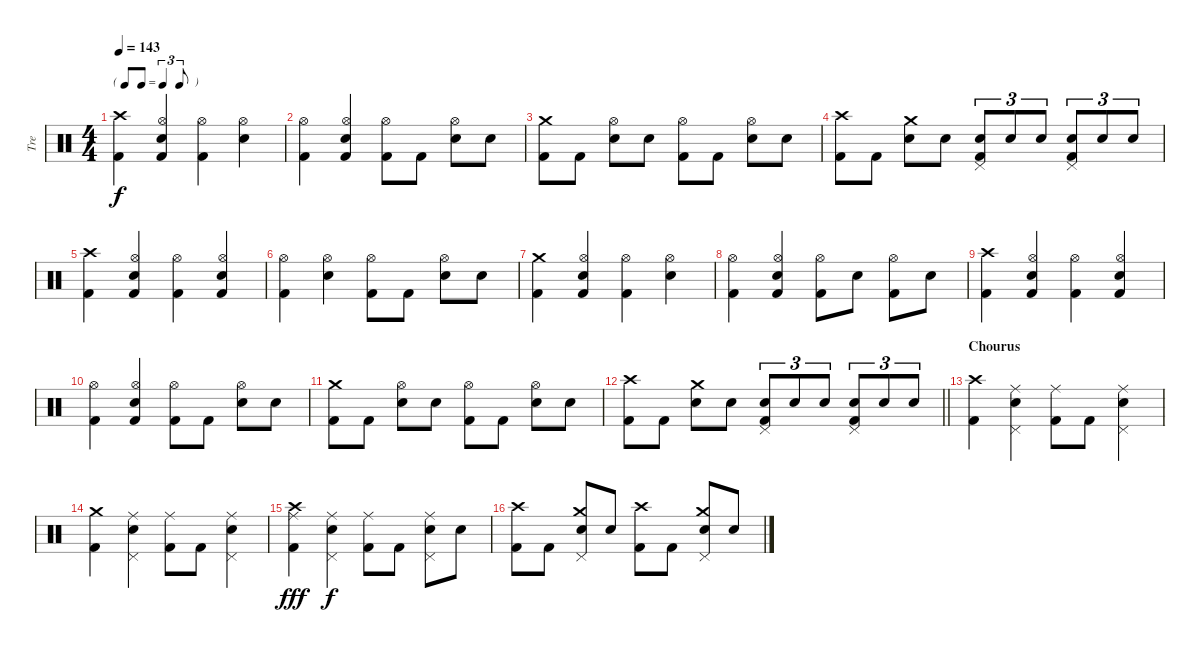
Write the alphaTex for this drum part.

\track ("Tre" "Tre") {instrument percussion}
\staff {score}
\articulation defaults
\ts (4 4)
\tf triplet8th
\tempo 143
\clef neutral
\ks c
("Crash high (hit)" "Kick (hit) 2").4{dy f} ("Hi-Hat (open)" "Snare (hit) 2" "Kick (hit) 2").4 ("Hi-Hat (open)" "Kick (hit) 2").4 ("Hi-Hat (open)" "Snare (hit) 2").4 |
("Hi-Hat (open)" "Kick (hit) 2").4 ("Hi-Hat (open)" "Snare (hit) 2" "Kick (hit) 2").4 ("Hi-Hat (open)" "Kick (hit) 2").8 "Kick (hit) 2".8 ("Hi-Hat (open)" "Snare (hit) 2").8 "Snare (hit) 2".8 |
("Crash medium (hit)" "Kick (hit) 2").8 "Kick (hit) 2".8 ("Hi-Hat (open)" "Snare (hit) 2").8 "Snare (hit) 2".8 ("Hi-Hat (open)" "Kick (hit) 2").8 "Kick (hit) 2".8 ("Hi-Hat (open)" "Snare (hit) 2").8 "Snare (hit) 2".8 |
("Crash high (hit)" "Kick (hit) 2").8 "Kick (hit) 2".8 ("Crash medium (hit)" "Snare (hit) 2").8 "Snare (hit) 2".8 ("Snare (hit) 2" "Pedal Hi-Hat (hit)" "Kick (hit) 2").8{tu (3 2)} "Snare (hit) 2".8{tu (3 2)} "Snare (hit) 2".8{tu (3 2)} ("Snare (hit) 2" "Pedal Hi-Hat (hit)" "Kick (hit) 2").8{tu (3 2)} "Snare (hit) 2".8{tu (3 2)} "Snare (hit) 2".8{tu (3 2)} |
("Crash high (hit)" "Kick (hit) 2").4 ("Hi-Hat (open)" "Snare (hit) 2" "Kick (hit) 2").4 ("Hi-Hat (open)" "Kick (hit) 2").4 ("Hi-Hat (open)" "Snare (hit) 2" "Kick (hit) 2").4 |
("Hi-Hat (open)" "Kick (hit) 2").4 ("Hi-Hat (open)" "Snare (hit) 2").4 ("Hi-Hat (open)" "Kick (hit) 2").8 "Kick (hit) 2".8 ("Hi-Hat (open)" "Snare (hit) 2").8 "Snare (hit) 2".8 |
("Crash medium (hit)" "Kick (hit) 2").4 ("Hi-Hat (open)" "Snare (hit) 2" "Kick (hit) 2").4 ("Hi-Hat (open)" "Kick (hit) 2").4 ("Hi-Hat (open)" "Snare (hit) 2").4 |
("Hi-Hat (open)" "Kick (hit) 2").4 ("Hi-Hat (open)" "Snare (hit) 2" "Kick (hit) 2").4 ("Hi-Hat (open)" "Kick (hit) 2").8 "Snare (hit) 2".8 ("Hi-Hat (open)" "Kick (hit) 2").8 "Snare (hit) 2".8 |
("Crash high (hit)" "Kick (hit) 2").4 ("Hi-Hat (open)" "Snare (hit) 2" "Kick (hit) 2").4 ("Hi-Hat (open)" "Kick (hit) 2").4 ("Hi-Hat (open)" "Snare (hit) 2" "Kick (hit) 2").4 |
("Hi-Hat (open)" "Kick (hit) 2").4 ("Hi-Hat (open)" "Snare (hit) 2" "Kick (hit) 2").4 ("Hi-Hat (open)" "Kick (hit) 2").8 "Kick (hit) 2".8 ("Hi-Hat (open)" "Snare (hit) 2").8 "Snare (hit) 2".8 |
("Crash medium (hit)" "Kick (hit) 2").8 "Kick (hit) 2".8 ("Hi-Hat (open)" "Snare (hit) 2").8 "Snare (hit) 2".8 ("Hi-Hat (open)" "Kick (hit) 2").8 "Kick (hit) 2".8 ("Hi-Hat (open)" "Snare (hit) 2").8 "Snare (hit) 2".8 |
\barLineRight lightlight
("Crash high (hit)" "Kick (hit) 2").8 "Kick (hit) 2".8 ("Crash medium (hit)" "Snare (hit) 2").8 "Snare (hit) 2".8 ("Snare (hit) 2" "Pedal Hi-Hat (hit)" "Kick (hit) 2").8{tu (3 2)} "Snare (hit) 2".8{tu (3 2)} "Snare (hit) 2".8{tu (3 2)} ("Snare (hit) 2" "Pedal Hi-Hat (hit)" "Kick (hit) 2").8{tu (3 2)} "Snare (hit) 2".8{tu (3 2)} "Snare (hit) 2".8{tu (3 2)} |
\section ("" "Chourus")
("Crash high (hit)" "Kick (hit) 2").4 ("Ride (middle)" "Snare (hit) 2" "Pedal Hi-Hat (hit)").4 ("Ride (middle)" "Kick (hit) 2").8 "Kick (hit) 2".8 ("Ride (middle)" "Snare (hit) 2" "Pedal Hi-Hat (hit)").4 |
("Crash medium (hit)" "Kick (hit) 2").4 ("Ride (middle)" "Snare (hit) 2" "Pedal Hi-Hat (hit)").4 ("Ride (middle)" "Kick (hit) 2").8 "Kick (hit) 2".8 ("Ride (middle)" "Snare (hit) 2" "Pedal Hi-Hat (hit)").4 |
("Crash high (hit)" "Ride (middle)" "Kick (hit) 2").4{dy fff} ("Ride (middle)" "Snare (hit) 2" "Pedal Hi-Hat (hit)").4{dy f} ("Ride (middle)" "Kick (hit) 2").8 "Kick (hit) 2".8 ("Ride (middle)" "Snare (hit) 2" "Pedal Hi-Hat (hit)").8 "Snare (hit) 2".8 |
("Crash high (hit)" "Kick (hit) 2").8 "Kick (hit) 2".8 ("Crash medium (hit)" "Snare (hit) 2" "Pedal Hi-Hat (hit)").8 "Snare (hit) 2".8 ("Crash high (hit)" "Kick (hit) 2").8 "Kick (hit) 2".8 ("Crash medium (hit)" "Snare (hit) 2" "Pedal Hi-Hat (hit)").8 "Snare (hit) 2".8
